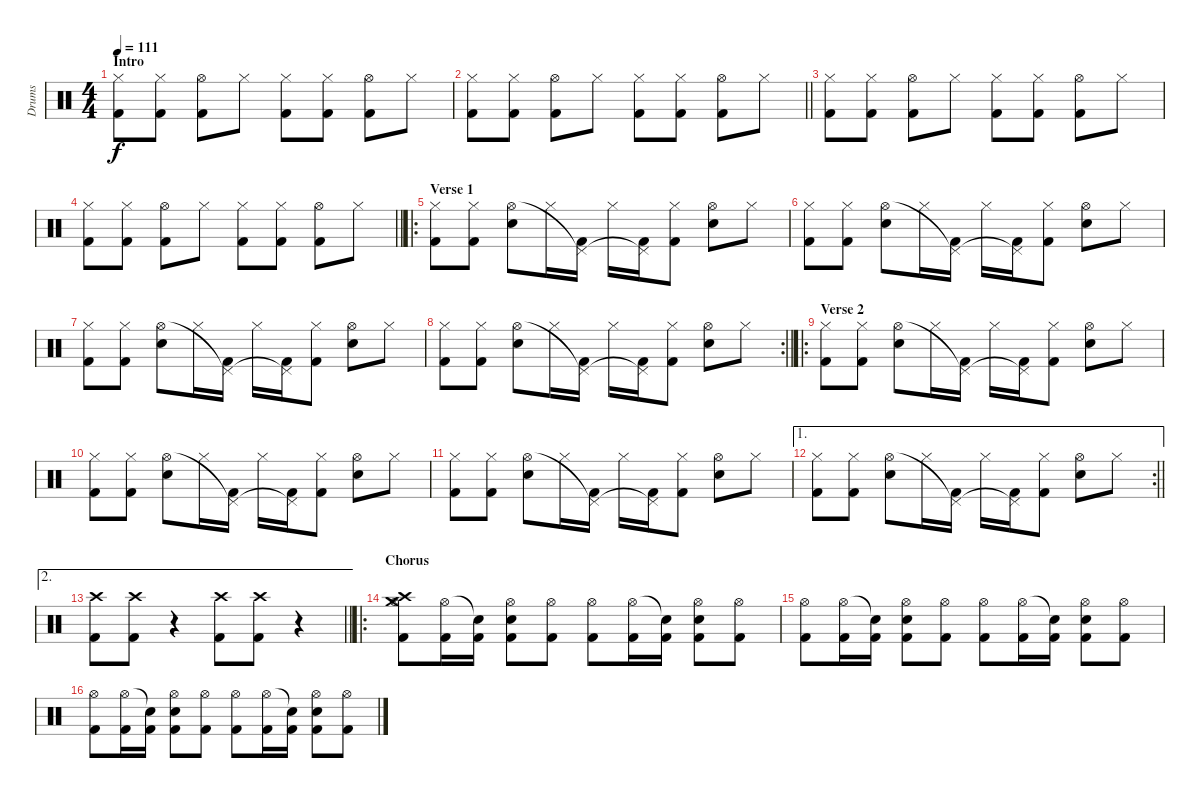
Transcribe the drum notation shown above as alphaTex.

\track ("Drums" "Drums") {instrument percussion}
\staff {score}
\articulation defaults
\ts (4 4)
\section ("" "Intro")
\tempo 111
\clef neutral
\ks c
("Kick (hit) 2" "Hi-Hat (closed)").8{dy f} ("Kick (hit) 2" "Hi-Hat (closed)").8 ("Kick (hit) 2" "Hi-Hat (open)").8 "Hi-Hat (closed)".8 ("Kick (hit) 2" "Hi-Hat (closed)").8 ("Kick (hit) 2" "Hi-Hat (closed)").8 ("Kick (hit) 2" "Hi-Hat (open)").8 "Hi-Hat (closed)".8 |
\barLineRight lightlight
("Kick (hit) 2" "Hi-Hat (closed)").8 ("Kick (hit) 2" "Hi-Hat (closed)").8 ("Kick (hit) 2" "Hi-Hat (open)").8 "Hi-Hat (closed)".8 ("Kick (hit) 2" "Hi-Hat (closed)").8 ("Kick (hit) 2" "Hi-Hat (closed)").8 ("Kick (hit) 2" "Hi-Hat (open)").8 "Hi-Hat (closed)".8 |
("Kick (hit) 2" "Hi-Hat (closed)").8 ("Kick (hit) 2" "Hi-Hat (closed)").8 ("Kick (hit) 2" "Hi-Hat (open)").8 "Hi-Hat (closed)".8 ("Kick (hit) 2" "Hi-Hat (closed)").8 ("Kick (hit) 2" "Hi-Hat (closed)").8 ("Kick (hit) 2" "Hi-Hat (open)").8 "Hi-Hat (closed)".8 |
\barLineRight lightlight
("Kick (hit) 2" "Hi-Hat (closed)").8 ("Kick (hit) 2" "Hi-Hat (closed)").8 ("Kick (hit) 2" "Hi-Hat (open)").8 "Hi-Hat (closed)".8 ("Kick (hit) 2" "Hi-Hat (closed)").8 ("Kick (hit) 2" "Hi-Hat (closed)").8 ("Kick (hit) 2" "Hi-Hat (open)").8 "Hi-Hat (closed)".8 |
\ro
\section ("" "Verse 1")
("Kick (hit) 2" "Hi-Hat (closed)").8 ("Kick (hit) 2" "Hi-Hat (closed)").8 ("Electric Snare (hit)" "Hi-Hat (open)").8 "Hi-Hat (closed)".16 ("Kick (hit) 2" "Pedal Hi-Hat (hit)"{t}).16 "Hi-Hat (closed)".16 ("Kick (hit) 2" "Pedal Hi-Hat (hit)"{t}).16 ("Kick (hit) 2" "Hi-Hat (closed)").8 ("Electric Snare (hit)" "Hi-Hat (open)").8 "Hi-Hat (closed)".8 |
("Kick (hit) 2" "Hi-Hat (closed)").8 ("Kick (hit) 2" "Hi-Hat (closed)").8 ("Electric Snare (hit)" "Hi-Hat (open)").8 "Hi-Hat (closed)".16 ("Kick (hit) 2" "Pedal Hi-Hat (hit)"{t}).16 "Hi-Hat (closed)".16 ("Kick (hit) 2" "Pedal Hi-Hat (hit)"{t}).16 ("Kick (hit) 2" "Hi-Hat (closed)").8 ("Electric Snare (hit)" "Hi-Hat (open)").8 "Hi-Hat (closed)".8 |
("Kick (hit) 2" "Hi-Hat (closed)").8 ("Kick (hit) 2" "Hi-Hat (closed)").8 ("Electric Snare (hit)" "Hi-Hat (open)").8 "Hi-Hat (closed)".16 ("Kick (hit) 2" "Pedal Hi-Hat (hit)"{t}).16 "Hi-Hat (closed)".16 ("Kick (hit) 2" "Pedal Hi-Hat (hit)"{t}).16 ("Kick (hit) 2" "Hi-Hat (closed)").8 ("Electric Snare (hit)" "Hi-Hat (open)").8 "Hi-Hat (closed)".8 |
\rc 2
\barLineRight lightlight
("Kick (hit) 2" "Hi-Hat (closed)").8 ("Kick (hit) 2" "Hi-Hat (closed)").8 ("Electric Snare (hit)" "Hi-Hat (open)").8 "Hi-Hat (closed)".16 ("Kick (hit) 2" "Pedal Hi-Hat (hit)"{t}).16 "Hi-Hat (closed)".16 ("Kick (hit) 2" "Pedal Hi-Hat (hit)"{t}).16 ("Kick (hit) 2" "Hi-Hat (closed)").8 ("Electric Snare (hit)" "Hi-Hat (open)").8 "Hi-Hat (closed)".8 |
\ro
\section ("" "Verse 2")
("Kick (hit) 2" "Hi-Hat (closed)").8 ("Kick (hit) 2" "Hi-Hat (closed)").8 ("Electric Snare (hit)" "Hi-Hat (open)").8 "Hi-Hat (closed)".16 ("Kick (hit) 2" "Pedal Hi-Hat (hit)"{t}).16 "Hi-Hat (closed)".16 ("Kick (hit) 2" "Pedal Hi-Hat (hit)"{t}).16 ("Kick (hit) 2" "Hi-Hat (closed)").8 ("Electric Snare (hit)" "Hi-Hat (open)").8 "Hi-Hat (closed)".8 |
("Kick (hit) 2" "Hi-Hat (closed)").8 ("Kick (hit) 2" "Hi-Hat (closed)").8 ("Electric Snare (hit)" "Hi-Hat (open)").8 "Hi-Hat (closed)".16 ("Kick (hit) 2" "Pedal Hi-Hat (hit)"{t}).16 "Hi-Hat (closed)".16 ("Kick (hit) 2" "Pedal Hi-Hat (hit)"{t}).16 ("Kick (hit) 2" "Hi-Hat (closed)").8 ("Electric Snare (hit)" "Hi-Hat (open)").8 "Hi-Hat (closed)".8 |
("Kick (hit) 2" "Hi-Hat (closed)").8 ("Kick (hit) 2" "Hi-Hat (closed)").8 ("Electric Snare (hit)" "Hi-Hat (open)").8 "Hi-Hat (closed)".16 ("Kick (hit) 2" "Pedal Hi-Hat (hit)"{t}).16 "Hi-Hat (closed)".16 ("Kick (hit) 2" "Pedal Hi-Hat (hit)"{t}).16 ("Kick (hit) 2" "Hi-Hat (closed)").8 ("Electric Snare (hit)" "Hi-Hat (open)").8 "Hi-Hat (closed)".8 |
\ae 1
\rc 2
\barLineRight lightlight
("Kick (hit) 2" "Hi-Hat (closed)").8 ("Kick (hit) 2" "Hi-Hat (closed)").8 ("Electric Snare (hit)" "Hi-Hat (open)").8 "Hi-Hat (closed)".16 ("Kick (hit) 2" "Pedal Hi-Hat (hit)"{t}).16 "Hi-Hat (closed)".16 ("Kick (hit) 2" "Pedal Hi-Hat (hit)"{t}).16 ("Kick (hit) 2" "Hi-Hat (closed)").8 ("Electric Snare (hit)" "Hi-Hat (open)").8 "Hi-Hat (closed)".8 |
\ae 2
\barLineRight lightlight
("Crash high (hit)" "Kick (hit) 2").8 ("Crash high (hit)" "Kick (hit) 2").8 r.4 ("Crash high (hit)" "Kick (hit) 2").8 ("Crash high (hit)" "Kick (hit) 2").8 r.4 |
\ro
\section ("" "Chorus")
("Crash medium (hit)" "Crash high (hit)" "Kick (hit) 2" "Hi-Hat (open)").8 ("Kick (hit) 2" "Hi-Hat (open)").16 ("Kick (hit) 2" "Snare (hit)"{t}).16 ("Electric Snare (hit)" "Kick (hit) 2" "Hi-Hat (open)").8 ("Kick (hit) 2" "Hi-Hat (open)").8 ("Kick (hit) 2" "Hi-Hat (open)").8 ("Kick (hit) 2" "Hi-Hat (open)").16 ("Kick (hit) 2" "Snare (hit)"{t}).16 ("Electric Snare (hit)" "Kick (hit) 2" "Hi-Hat (open)").8 ("Kick (hit) 2" "Hi-Hat (open)").8 |
("Kick (hit) 2" "Hi-Hat (open)").8 ("Kick (hit) 2" "Hi-Hat (open)").16 ("Kick (hit) 2" "Snare (hit)"{t}).16 ("Electric Snare (hit)" "Kick (hit) 2" "Hi-Hat (open)").8 ("Kick (hit) 2" "Hi-Hat (open)").8 ("Kick (hit) 2" "Hi-Hat (open)").8 ("Kick (hit) 2" "Hi-Hat (open)").16 ("Kick (hit) 2" "Snare (hit)"{t}).16 ("Electric Snare (hit)" "Kick (hit) 2" "Hi-Hat (open)").8 ("Kick (hit) 2" "Hi-Hat (open)").8 |
("Kick (hit) 2" "Hi-Hat (open)").8 ("Kick (hit) 2" "Hi-Hat (open)").16 ("Kick (hit) 2" "Snare (hit)"{t}).16 ("Electric Snare (hit)" "Kick (hit) 2" "Hi-Hat (open)").8 ("Kick (hit) 2" "Hi-Hat (open)").8 ("Kick (hit) 2" "Hi-Hat (open)").8 ("Kick (hit) 2" "Hi-Hat (open)").16 ("Kick (hit) 2" "Snare (hit)"{t}).16 ("Electric Snare (hit)" "Kick (hit) 2" "Hi-Hat (open)").8 ("Kick (hit) 2" "Hi-Hat (open)").8
